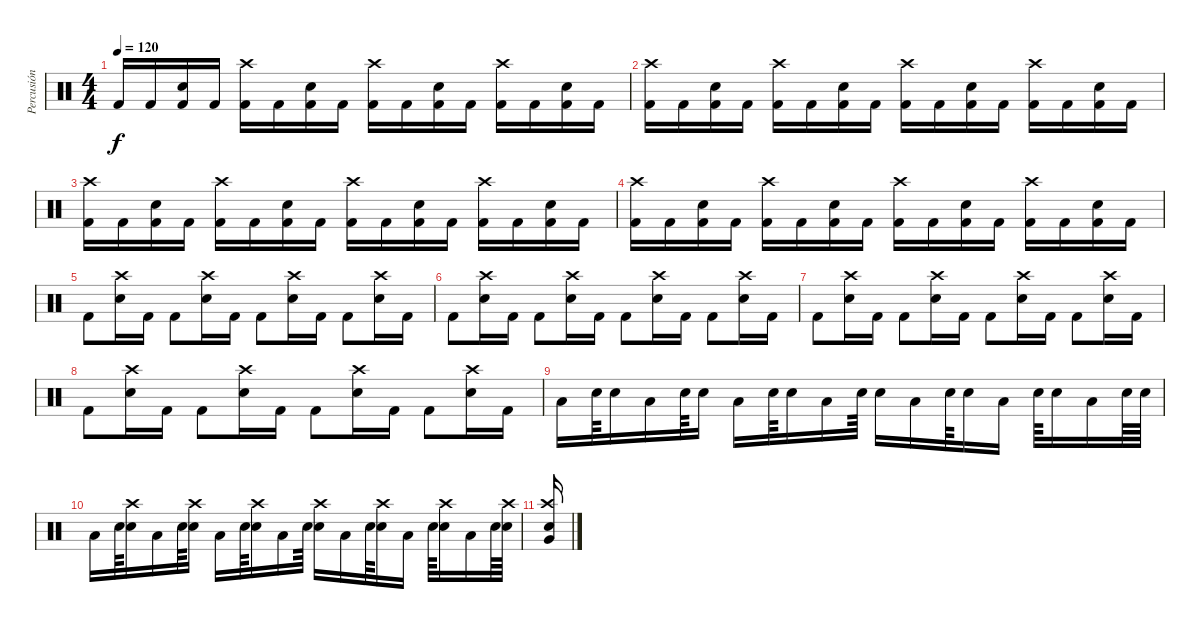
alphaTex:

\track ("Percusión" "Percusión") {instrument percussion}
\staff {score}
\articulation defaults
\ts (4 4)
\tempo 120
\clef neutral
\ks c "Kick (hit) 2".16{dy f} "Kick (hit) 2".16
("Kick (hit) 2" "Electric Snare (hit)").16 "Kick (hit) 2".16 ("Kick (hit) 2" "Crash high (hit)").16 "Kick (hit) 2".16 ("Kick (hit) 2" "Electric Snare (hit)").16 "Kick (hit) 2".16 ("Kick (hit) 2" "Crash high (hit)").16 "Kick (hit) 2".16 ("Kick (hit) 2" "Electric Snare (hit)").16 "Kick (hit) 2".16 ("Kick (hit) 2" "Crash high (hit)").16 "Kick (hit) 2".16 ("Kick (hit) 2" "Electric Snare (hit)").16 "Kick (hit) 2".16 |
("Kick (hit) 2" "Crash high (hit)").16 "Kick (hit) 2".16 ("Kick (hit) 2" "Electric Snare (hit)").16 "Kick (hit) 2".16 ("Kick (hit) 2" "Crash high (hit)").16 "Kick (hit) 2".16 ("Kick (hit) 2" "Electric Snare (hit)").16 "Kick (hit) 2".16 ("Kick (hit) 2" "Crash high (hit)").16 "Kick (hit) 2".16 ("Kick (hit) 2" "Electric Snare (hit)").16 "Kick (hit) 2".16 ("Kick (hit) 2" "Crash high (hit)").16 "Kick (hit) 2".16 ("Kick (hit) 2" "Electric Snare (hit)").16 "Kick (hit) 2".16 |
("Kick (hit) 2" "Crash high (hit)").16 "Kick (hit) 2".16 ("Kick (hit) 2" "Electric Snare (hit)").16 "Kick (hit) 2".16 ("Kick (hit) 2" "Crash high (hit)").16 "Kick (hit) 2".16 ("Kick (hit) 2" "Electric Snare (hit)").16 "Kick (hit) 2".16 ("Kick (hit) 2" "Crash high (hit)").16 "Kick (hit) 2".16 ("Kick (hit) 2" "Electric Snare (hit)").16 "Kick (hit) 2".16 ("Kick (hit) 2" "Crash high (hit)").16 "Kick (hit) 2".16 ("Kick (hit) 2" "Electric Snare (hit)").16 "Kick (hit) 2".16 |
("Kick (hit) 2" "Crash high (hit)").16 "Kick (hit) 2".16 ("Kick (hit) 2" "Electric Snare (hit)").16 "Kick (hit) 2".16 ("Kick (hit) 2" "Crash high (hit)").16 "Kick (hit) 2".16 ("Kick (hit) 2" "Electric Snare (hit)").16 "Kick (hit) 2".16 ("Kick (hit) 2" "Crash high (hit)").16 "Kick (hit) 2".16 ("Kick (hit) 2" "Electric Snare (hit)").16 "Kick (hit) 2".16 ("Kick (hit) 2" "Crash high (hit)").16 "Kick (hit) 2".16 ("Kick (hit) 2" "Electric Snare (hit)").16 "Kick (hit) 2".16 |
"Kick (hit) 2".8 ("Electric Snare (hit)" "Crash high (hit)").16 "Kick (hit) 2".16 "Kick (hit) 2".8 ("Electric Snare (hit)" "Crash high (hit)").16 "Kick (hit) 2".16 "Kick (hit) 2".8 ("Electric Snare (hit)" "Crash high (hit)").16 "Kick (hit) 2".16 "Kick (hit) 2".8 ("Electric Snare (hit)" "Crash high (hit)").16 "Kick (hit) 2".16 |
"Kick (hit) 2".8 ("Electric Snare (hit)" "Crash high (hit)").16 "Kick (hit) 2".16 "Kick (hit) 2".8 ("Electric Snare (hit)" "Crash high (hit)").16 "Kick (hit) 2".16 "Kick (hit) 2".8 ("Electric Snare (hit)" "Crash high (hit)").16 "Kick (hit) 2".16 "Kick (hit) 2".8 ("Electric Snare (hit)" "Crash high (hit)").16 "Kick (hit) 2".16 |
"Kick (hit) 2".8 ("Electric Snare (hit)" "Crash high (hit)").16 "Kick (hit) 2".16 "Kick (hit) 2".8 ("Electric Snare (hit)" "Crash high (hit)").16 "Kick (hit) 2".16 "Kick (hit) 2".8 ("Electric Snare (hit)" "Crash high (hit)").16 "Kick (hit) 2".16 "Kick (hit) 2".8 ("Electric Snare (hit)" "Crash high (hit)").16 "Kick (hit) 2".16 |
"Kick (hit) 2".8 ("Electric Snare (hit)" "Crash high (hit)").16 "Kick (hit) 2".16 "Kick (hit) 2".8 ("Electric Snare (hit)" "Crash high (hit)").16 "Kick (hit) 2".16 "Kick (hit) 2".8 ("Electric Snare (hit)" "Crash high (hit)").16 "Kick (hit) 2".16 "Kick (hit) 2".8 ("Electric Snare (hit)" "Crash high (hit)").16 "Kick (hit) 2".16 |
"Low Floor Tom (hit)".16 "Electric Snare (hit)".64 "Electric Snare (hit)".16 "Low Floor Tom (hit)".16 "Electric Snare (hit)".64 "Electric Snare (hit)".16 "Low Floor Tom (hit)".16 "Electric Snare (hit)".64 "Electric Snare (hit)".16 "Low Floor Tom (hit)".16 "Electric Snare (hit)".64 "Electric Snare (hit)".16 "Low Floor Tom (hit)".16 "Electric Snare (hit)".64 "Electric Snare (hit)".16 "Low Floor Tom (hit)".16 "Electric Snare (hit)".64 "Electric Snare (hit)".16 "Low Floor Tom (hit)".16 "Electric Snare (hit)".64 "Electric Snare (hit)".64 |
"Low Floor Tom (hit)".16 "Electric Snare (hit)".64 ("Electric Snare (hit)" "Crash high (hit)").16 "Low Floor Tom (hit)".16 "Electric Snare (hit)".64 ("Electric Snare (hit)" "Crash high (hit)").16 "Low Floor Tom (hit)".16 "Electric Snare (hit)".64 ("Electric Snare (hit)" "Crash high (hit)").16 "Low Floor Tom (hit)".16 "Electric Snare (hit)".64 ("Electric Snare (hit)" "Crash high (hit)").16 "Low Floor Tom (hit)".16 "Electric Snare (hit)".64 ("Electric Snare (hit)" "Crash high (hit)").16 "Low Floor Tom (hit)".16 "Electric Snare (hit)".64 ("Electric Snare (hit)" "Crash high (hit)").16 "Low Floor Tom (hit)".16 "Electric Snare (hit)".64 ("Electric Snare (hit)" "Crash high (hit)").64 |
("Very Low Tom (hit)" "Crash high (hit)" "Electric Snare (hit)").16
